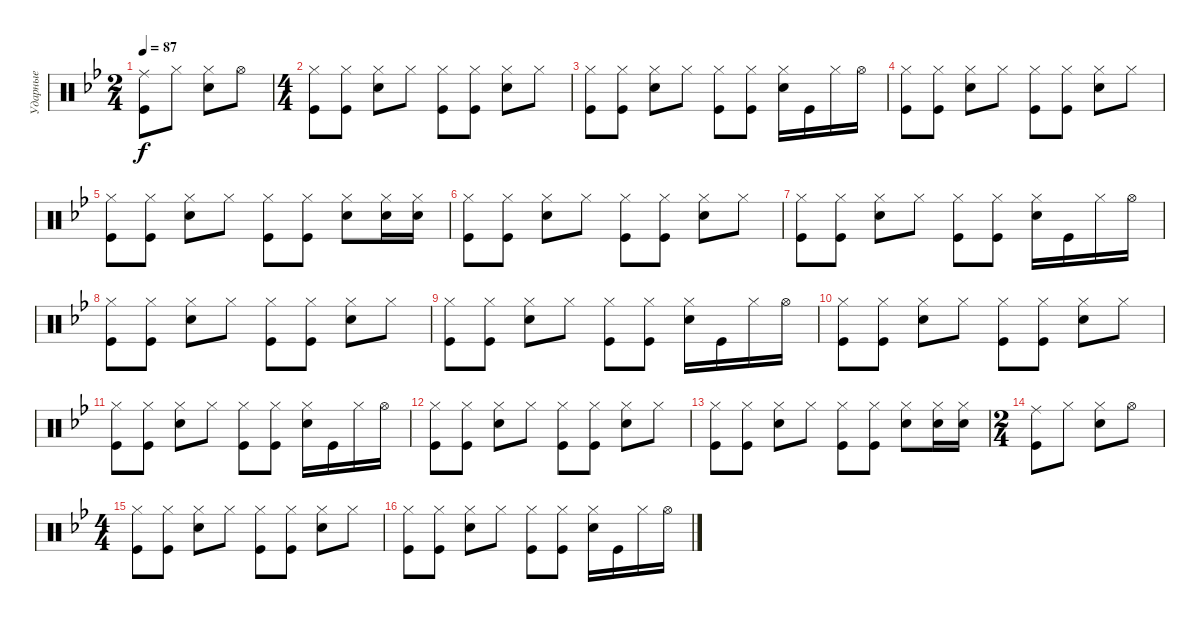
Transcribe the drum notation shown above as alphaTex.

\track ("Ударные" "Ударные") {instrument percussion}
\staff {score}
\articulation defaults
\ts (2 4)
\tempo 87
\clef neutral
\ks bb
("Ride (middle)" "Kick (hit)").8{dy f} "Hi-Hat (closed)".8 ("Hi-Hat (closed)" "Snare (hit) 2").8 "Hi-Hat (open)".8 |
\ts (4 4)
("Hi-Hat (closed)" "Kick (hit)").8 ("Hi-Hat (closed)" "Kick (hit)").8 ("Hi-Hat (closed)" "Snare (hit) 2").8 "Hi-Hat (closed)".8 ("Hi-Hat (closed)" "Kick (hit)").8 ("Hi-Hat (closed)" "Kick (hit)").8 ("Hi-Hat (closed)" "Snare (hit) 2").8 "Hi-Hat (closed)".8 |
("Hi-Hat (closed)" "Kick (hit)").8 ("Hi-Hat (closed)" "Kick (hit)").8 ("Hi-Hat (closed)" "Snare (hit) 2").8 "Hi-Hat (closed)".8 ("Hi-Hat (closed)" "Kick (hit)").8 ("Hi-Hat (closed)" "Kick (hit)").8 ("Hi-Hat (closed)" "Snare (hit) 2").16 "Kick (hit)".16 "Hi-Hat (closed)".16 "Hi-Hat (open)".16 |
("Hi-Hat (closed)" "Kick (hit)").8 ("Hi-Hat (closed)" "Kick (hit)").8 ("Hi-Hat (closed)" "Snare (hit) 2").8 "Hi-Hat (closed)".8 ("Hi-Hat (closed)" "Kick (hit)").8 ("Hi-Hat (closed)" "Kick (hit)").8 ("Hi-Hat (closed)" "Snare (hit) 2").8 "Hi-Hat (closed)".8 |
("Hi-Hat (closed)" "Kick (hit)").8 ("Hi-Hat (closed)" "Kick (hit)").8 ("Hi-Hat (closed)" "Snare (hit) 2").8 "Hi-Hat (closed)".8 ("Hi-Hat (closed)" "Kick (hit)").8 ("Hi-Hat (closed)" "Kick (hit)").8 ("Hi-Hat (closed)" "Snare (hit) 2").8 ("Hi-Hat (closed)" "Snare (hit) 2").16 ("Hi-Hat (closed)" "Snare (hit) 2").16 |
("Hi-Hat (closed)" "Kick (hit)").8 ("Hi-Hat (closed)" "Kick (hit)").8 ("Hi-Hat (closed)" "Snare (hit) 2").8 "Hi-Hat (closed)".8 ("Hi-Hat (closed)" "Kick (hit)").8 ("Hi-Hat (closed)" "Kick (hit)").8 ("Hi-Hat (closed)" "Snare (hit) 2").8 "Hi-Hat (closed)".8 |
("Hi-Hat (closed)" "Kick (hit)").8 ("Hi-Hat (closed)" "Kick (hit)").8 ("Hi-Hat (closed)" "Snare (hit) 2").8 "Hi-Hat (closed)".8 ("Hi-Hat (closed)" "Kick (hit)").8 ("Hi-Hat (closed)" "Kick (hit)").8 ("Hi-Hat (closed)" "Snare (hit) 2").16 "Kick (hit)".16 "Hi-Hat (closed)".16 "Hi-Hat (open)".16 |
("Hi-Hat (closed)" "Kick (hit)").8 ("Hi-Hat (closed)" "Kick (hit)").8 ("Hi-Hat (closed)" "Snare (hit) 2").8 "Hi-Hat (closed)".8 ("Hi-Hat (closed)" "Kick (hit)").8 ("Hi-Hat (closed)" "Kick (hit)").8 ("Hi-Hat (closed)" "Snare (hit) 2").8 "Hi-Hat (closed)".8 |
("Hi-Hat (closed)" "Kick (hit)").8 ("Hi-Hat (closed)" "Kick (hit)").8 ("Hi-Hat (closed)" "Snare (hit) 2").8 "Hi-Hat (closed)".8 ("Hi-Hat (closed)" "Kick (hit)").8 ("Hi-Hat (closed)" "Kick (hit)").8 ("Hi-Hat (closed)" "Snare (hit) 2").16 "Kick (hit)".16 "Hi-Hat (closed)".16 "Hi-Hat (open)".16 |
("Hi-Hat (closed)" "Kick (hit)").8 ("Hi-Hat (closed)" "Kick (hit)").8 ("Hi-Hat (closed)" "Snare (hit) 2").8 "Hi-Hat (closed)".8 ("Hi-Hat (closed)" "Kick (hit)").8 ("Hi-Hat (closed)" "Kick (hit)").8 ("Hi-Hat (closed)" "Snare (hit) 2").8 "Hi-Hat (closed)".8 |
("Hi-Hat (closed)" "Kick (hit)").8 ("Hi-Hat (closed)" "Kick (hit)").8 ("Hi-Hat (closed)" "Snare (hit) 2").8 "Hi-Hat (closed)".8 ("Hi-Hat (closed)" "Kick (hit)").8 ("Hi-Hat (closed)" "Kick (hit)").8 ("Hi-Hat (closed)" "Snare (hit) 2").16 "Kick (hit)".16 "Hi-Hat (closed)".16 "Hi-Hat (open)".16 |
("Hi-Hat (closed)" "Kick (hit)").8 ("Hi-Hat (closed)" "Kick (hit)").8 ("Hi-Hat (closed)" "Snare (hit) 2").8 "Hi-Hat (closed)".8 ("Hi-Hat (closed)" "Kick (hit)").8 ("Hi-Hat (closed)" "Kick (hit)").8 ("Hi-Hat (closed)" "Snare (hit) 2").8 "Hi-Hat (closed)".8 |
("Hi-Hat (closed)" "Kick (hit)").8 ("Hi-Hat (closed)" "Kick (hit)").8 ("Hi-Hat (closed)" "Snare (hit) 2").8 "Hi-Hat (closed)".8 ("Hi-Hat (closed)" "Kick (hit)").8 ("Hi-Hat (closed)" "Kick (hit)").8 ("Hi-Hat (closed)" "Snare (hit) 2").8 ("Hi-Hat (closed)" "Snare (hit) 2").16 ("Hi-Hat (closed)" "Snare (hit) 2").16 |
\ts (2 4)
("Ride (middle)" "Kick (hit)").8 "Hi-Hat (closed)".8 ("Hi-Hat (closed)" "Snare (hit) 2").8 "Hi-Hat (open)".8 |
\ts (4 4)
("Hi-Hat (closed)" "Kick (hit)").8 ("Hi-Hat (closed)" "Kick (hit)").8 ("Hi-Hat (closed)" "Snare (hit) 2").8 "Hi-Hat (closed)".8 ("Hi-Hat (closed)" "Kick (hit)").8 ("Hi-Hat (closed)" "Kick (hit)").8 ("Hi-Hat (closed)" "Snare (hit) 2").8 "Hi-Hat (closed)".8 |
("Hi-Hat (closed)" "Kick (hit)").8 ("Hi-Hat (closed)" "Kick (hit)").8 ("Hi-Hat (closed)" "Snare (hit) 2").8 "Hi-Hat (closed)".8 ("Hi-Hat (closed)" "Kick (hit)").8 ("Hi-Hat (closed)" "Kick (hit)").8 ("Hi-Hat (closed)" "Snare (hit) 2").16 "Kick (hit)".16 "Hi-Hat (closed)".16 "Hi-Hat (open)".16
